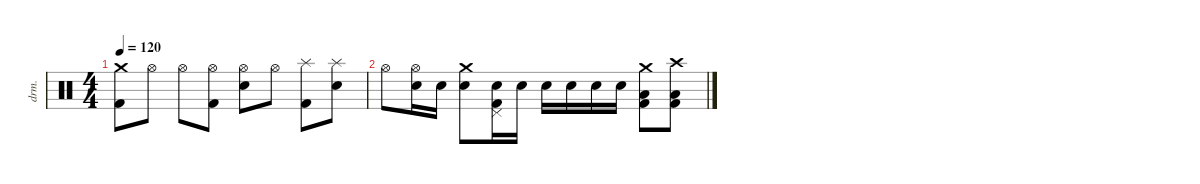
\defaultSystemsLayout 4
\hideDynamics
\bracketExtendMode nobrackets
\track ("Drumkit" "drm.") {instrument percussion}
\staff {score}
\articulation defaults
\ts (4 4)
\tempo 120
\clef neutral
\ks c
("Crash medium (hit)" "Kick (hit) 2").8{dy mf beam Down} "Hi-Hat (open)".8{beam Down} "Hi-Hat (open)".8{beam Down} ("Hi-Hat (open)" "Kick (hit) 2").8{beam Down} ("Hi-Hat (open)" "Snare (hit) 2").8{beam Down} "Hi-Hat (open)".8{beam Down} ("Splash (hit)" "Kick (hit) 2").8{beam Down} ("Splash (hit)" "Snare (hit) 2").8{beam Down} |
"Hi-Hat (open)".8{beam Down} ("Hi-Hat (open)" "Snare (hit) 2").16{beam Down} "Snare (hit) 2".16{beam Down} ("Crash medium (hit)" "Snare (hit) 2").8{beam Down} ("Pedal Hi-Hat (hit)" "Kick (hit) 2" "Snare (hit) 2").16{beam Down} "Snare (hit) 2".16{beam Down} "Snare (hit) 2".16{beam Down} "Snare (hit) 2".16{beam Down} "Snare (hit) 2".16{beam Down} "Snare (hit) 2".16{beam Down} ("Crash medium (hit)" "Kick (hit) 2" "Low Tom (hit)").8{beam Down} ("Crash high (hit)" "Low Tom (hit)" "Kick (hit) 2").8{beam Down}
